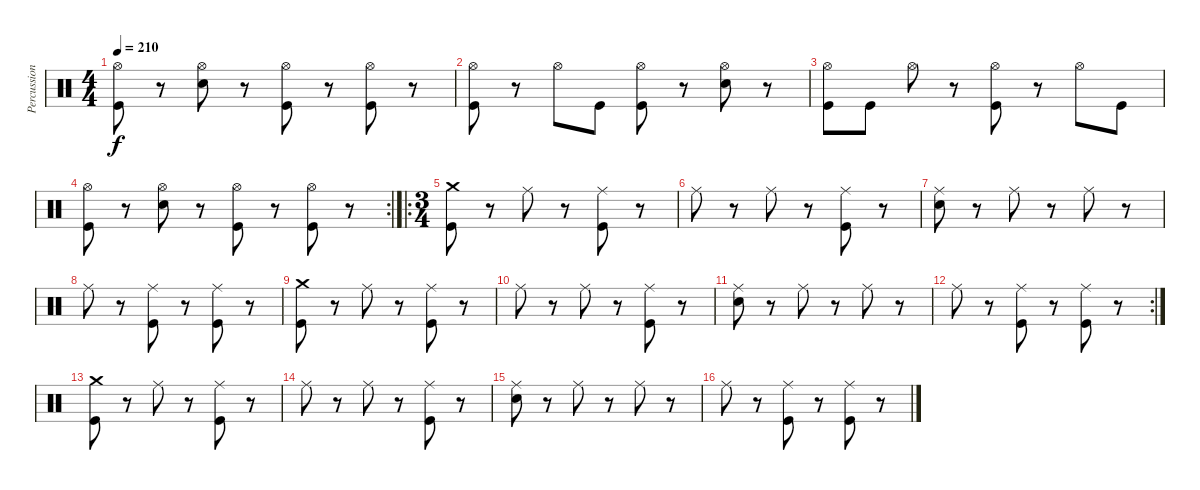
\track ("Percussion" "Percussion") {instrument percussion}
\staff {score}
\articulation defaults
\ts (4 4)
\tempo 210
\clef neutral
\ks c
("Hi-Hat (open)" "Kick (hit)").8{dy f} r.8 ("Hi-Hat (open)" "Electric Snare (hit)").8 r.8 ("Hi-Hat (open)" "Kick (hit)").8 r.8 ("Hi-Hat (open)" "Kick (hit)").8 r.8 |
("Hi-Hat (open)" "Kick (hit)").8 r.8 "Hi-Hat (open)".8 "Kick (hit)".8 ("Hi-Hat (open)" "Kick (hit)").8 r.8 ("Hi-Hat (open)" "Electric Snare (hit)").8 r.8 |
("Hi-Hat (open)" "Kick (hit)").8 "Kick (hit)".8 "Hi-Hat (open)".8 r.8 ("Hi-Hat (open)" "Kick (hit)").8 r.8 "Hi-Hat (open)".8 "Kick (hit)".8 |
\rc 2
("Hi-Hat (open)" "Kick (hit)").8 r.8 ("Hi-Hat (open)" "Electric Snare (hit)").8 r.8 ("Hi-Hat (open)" "Kick (hit)").8 r.8 ("Hi-Hat (open)" "Kick (hit)").8 r.8 |
\ro
\ts (3 4)
("Crash medium (hit)" "Kick (hit)").8 r.8 "Ride (middle)".8 r.8 ("Ride (middle)" "Kick (hit)").8 r.8 |
"Ride (middle)".8 r.8 "Ride (middle)".8 r.8 ("Ride (middle)" "Kick (hit)").8 r.8 |
("Ride (middle)" "Electric Snare (hit)").8 r.8 "Ride (middle)".8 r.8 "Ride (middle)".8 r.8 |
"Ride (middle)".8 r.8 ("Ride (middle)" "Kick (hit)").8 r.8 ("Ride (middle)" "Kick (hit)").8 r.8 |
("Crash medium (hit)" "Kick (hit)").8 r.8 "Ride (middle)".8 r.8 ("Ride (middle)" "Kick (hit)").8 r.8 |
"Ride (middle)".8 r.8 "Ride (middle)".8 r.8 ("Ride (middle)" "Kick (hit)").8 r.8 |
("Ride (middle)" "Electric Snare (hit)").8 r.8 "Ride (middle)".8 r.8 "Ride (middle)".8 r.8 |
\rc 2 "Ride (middle)".8
r.8 ("Ride (middle)" "Kick (hit)").8 r.8 ("Ride (middle)" "Kick (hit)").8 r.8 |
("Crash medium (hit)" "Kick (hit)").8 r.8 "Ride (middle)".8 r.8 ("Ride (middle)" "Kick (hit)").8 r.8 |
"Ride (middle)".8 r.8 "Ride (middle)".8 r.8 ("Ride (middle)" "Kick (hit)").8 r.8 |
("Ride (middle)" "Electric Snare (hit)").8 r.8 "Ride (middle)".8 r.8 "Ride (middle)".8 r.8 |
"Ride (middle)".8 r.8 ("Ride (middle)" "Kick (hit)").8 r.8 ("Ride (middle)" "Kick (hit)").8 r.8
